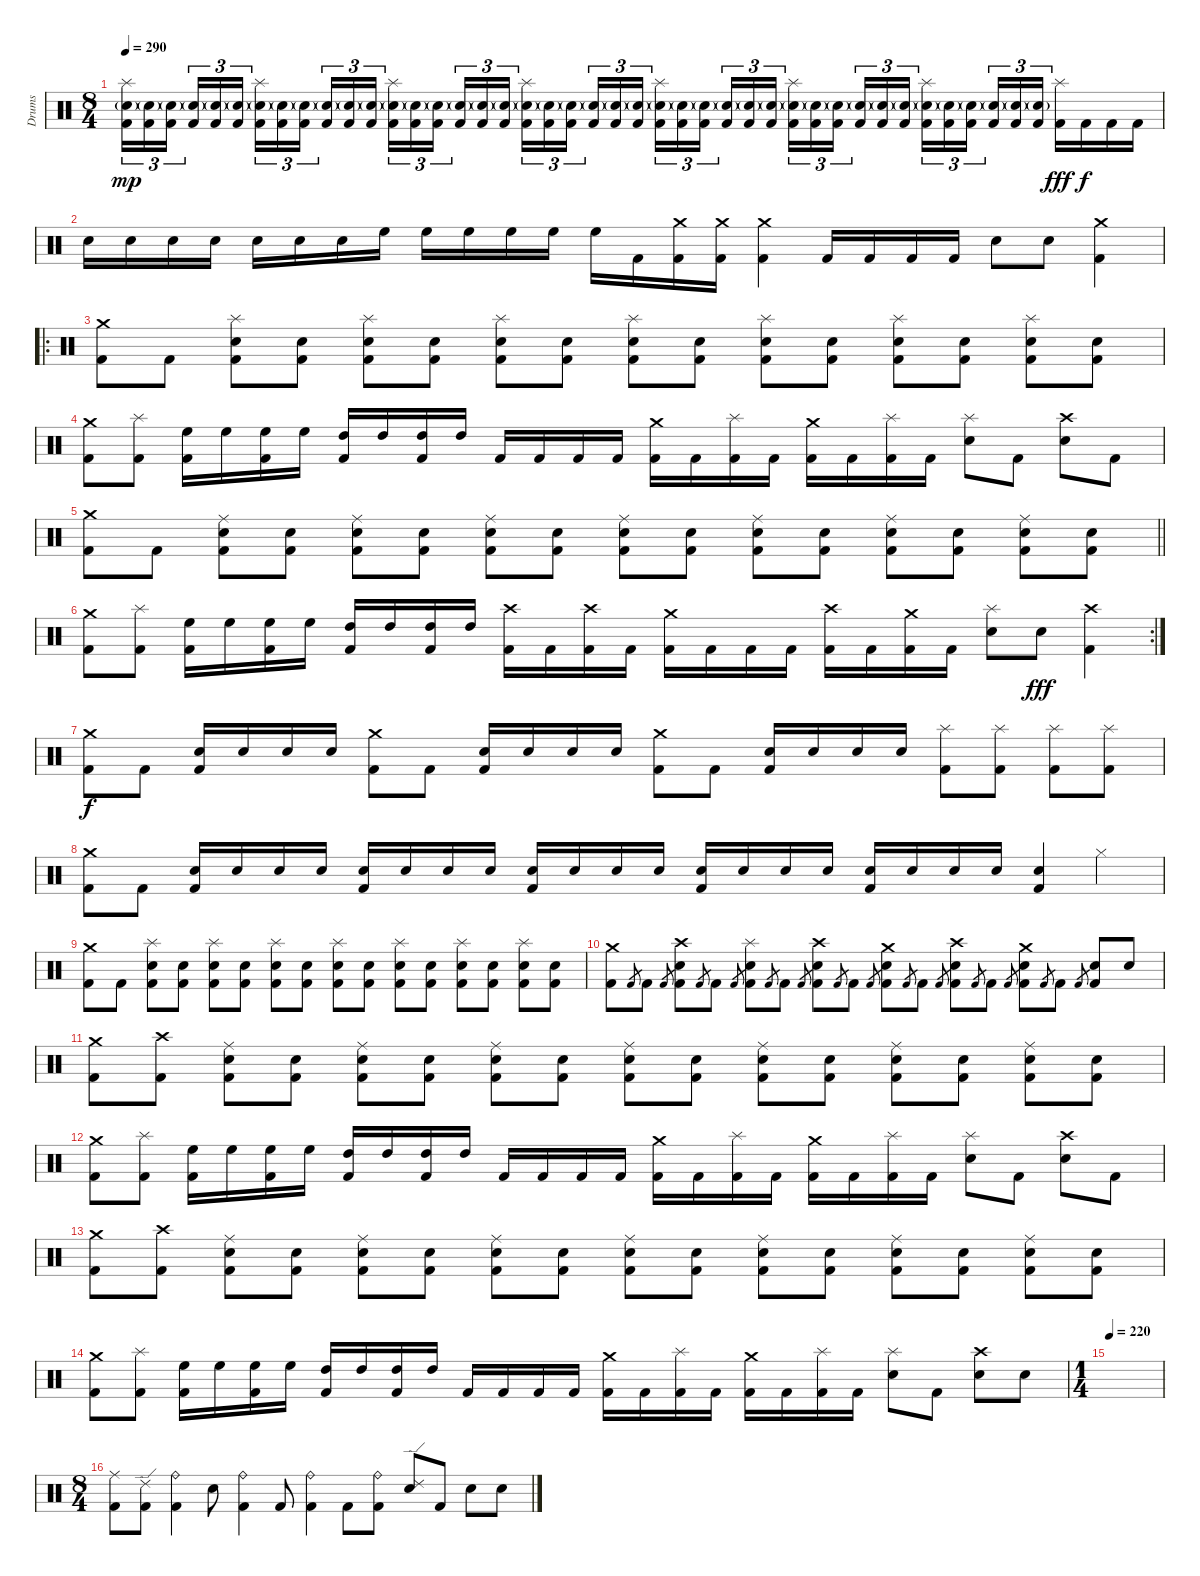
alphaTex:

\track ("Drums" "Drums") {instrument percussion}
\staff {score}
\articulation defaults
\ts (8 4)
\tempo 290
\clef neutral
\ks c
("Splash (hit)" "Snare (hit) 2"{g} "Kick (hit) 2").16{tu (3 2) dy mp} ("Snare (hit) 2"{g} "Kick (hit) 2").16{tu (3 2)} ("Snare (hit) 2"{g} "Kick (hit) 2").16{tu (3 2) beam splitsecondary} ("Snare (hit) 2"{g} "Kick (hit) 2").16{tu (3 2)} ("Snare (hit) 2"{g} "Kick (hit) 2").16{tu (3 2)} ("Snare (hit) 2"{g} "Kick (hit) 2").16{tu (3 2)} ("Splash (hit)" "Snare (hit) 2"{g} "Kick (hit) 2").16{tu (3 2)} ("Snare (hit) 2"{g} "Kick (hit) 2").16{tu (3 2)} ("Snare (hit) 2"{g} "Kick (hit) 2").16{tu (3 2) beam splitsecondary} ("Snare (hit) 2"{g} "Kick (hit) 2").16{tu (3 2)} ("Snare (hit) 2"{g} "Kick (hit) 2").16{tu (3 2)} ("Snare (hit) 2"{g} "Kick (hit) 2").16{tu (3 2)} ("Splash (hit)" "Snare (hit) 2"{g} "Kick (hit) 2").16{tu (3 2)} ("Snare (hit) 2"{g} "Kick (hit) 2").16{tu (3 2)} ("Snare (hit) 2"{g} "Kick (hit) 2").16{tu (3 2) beam splitsecondary} ("Snare (hit) 2"{g} "Kick (hit) 2").16{tu (3 2)} ("Snare (hit) 2"{g} "Kick (hit) 2").16{tu (3 2)} ("Snare (hit) 2"{g} "Kick (hit) 2").16{tu (3 2)} ("Splash (hit)" "Snare (hit) 2"{g} "Kick (hit) 2").16{tu (3 2)} ("Snare (hit) 2"{g} "Kick (hit) 2").16{tu (3 2)} ("Snare (hit) 2"{g} "Kick (hit) 2").16{tu (3 2) beam splitsecondary} ("Snare (hit) 2"{g} "Kick (hit) 2").16{tu (3 2)} ("Snare (hit) 2"{g} "Kick (hit) 2").16{tu (3 2)} ("Snare (hit) 2"{g} "Kick (hit) 2").16{tu (3 2)} ("Splash (hit)" "Snare (hit) 2"{g} "Kick (hit) 2").16{tu (3 2)} ("Snare (hit) 2"{g} "Kick (hit) 2").16{tu (3 2)} ("Snare (hit) 2"{g} "Kick (hit) 2").16{tu (3 2) beam splitsecondary} ("Snare (hit) 2"{g} "Kick (hit) 2").16{tu (3 2)} ("Snare (hit) 2"{g} "Kick (hit) 2").16{tu (3 2)} ("Snare (hit) 2"{g} "Kick (hit) 2").16{tu (3 2)} ("Splash (hit)" "Snare (hit) 2"{g} "Kick (hit) 2").16{tu (3 2)} ("Snare (hit) 2"{g} "Kick (hit) 2").16{tu (3 2)} ("Snare (hit) 2"{g} "Kick (hit) 2").16{tu (3 2) beam splitsecondary} ("Snare (hit) 2"{g} "Kick (hit) 2").16{tu (3 2)} ("Snare (hit) 2"{g} "Kick (hit) 2").16{tu (3 2)} ("Snare (hit) 2"{g} "Kick (hit) 2").16{tu (3 2)} ("Splash (hit)" "Snare (hit) 2"{g} "Kick (hit) 2").16{tu (3 2)} ("Snare (hit) 2"{g} "Kick (hit) 2").16{tu (3 2)} ("Snare (hit) 2"{g} "Kick (hit) 2").16{tu (3 2) beam splitsecondary} ("Snare (hit) 2"{g} "Kick (hit) 2").16{tu (3 2)} ("Snare (hit) 2"{g} "Kick (hit) 2").16{tu (3 2)} ("Snare (hit) 2"{g} "Kick (hit) 2").16{tu (3 2)} ("Splash (hit)" "Kick (hit) 2").16{dy fff} "Kick (hit) 2".16{dy f} "Kick (hit) 2".16 "Kick (hit) 2".16 |
"Snare (hit) 2".16 "Snare (hit) 2".16 "Snare (hit) 2".16 "Snare (hit) 2".16 "Snare (hit) 2".16 "Snare (hit) 2".16 "Snare (hit) 2".16 "High Floor Tom (hit)".16 "High Floor Tom (hit)".16 "High Floor Tom (hit)".16 "High Floor Tom (hit)".16 "High Floor Tom (hit)".16 "High Floor Tom (hit)".16 "Kick (hit) 2".16 ("Crash medium (hit)" "Kick (hit) 2").16 ("Crash medium (hit)" "Kick (hit) 2").16 ("Crash medium (hit)" "Kick (hit) 2").4 "Kick (hit) 2".16 "Kick (hit) 2".16 "Kick (hit) 2".16 "Kick (hit) 2".16 "Snare (hit) 2".8 "Snare (hit) 2".8 ("Crash medium (hit)" "Kick (hit) 2").4 |
\ro
("Crash medium (hit)" "Kick (hit) 2").8 "Kick (hit) 2".8 ("Splash (hit)" "Snare (hit) 2" "Kick (hit) 2").8 ("Snare (hit) 2" "Kick (hit) 2").8 ("Splash (hit)" "Snare (hit) 2" "Kick (hit) 2").8 ("Snare (hit) 2" "Kick (hit) 2").8 ("Splash (hit)" "Snare (hit) 2" "Kick (hit) 2").8 ("Snare (hit) 2" "Kick (hit) 2").8 ("Splash (hit)" "Snare (hit) 2" "Kick (hit) 2").8 ("Snare (hit) 2" "Kick (hit) 2").8 ("Splash (hit)" "Snare (hit) 2" "Kick (hit) 2").8 ("Snare (hit) 2" "Kick (hit) 2").8 ("Splash (hit)" "Snare (hit) 2" "Kick (hit) 2").8 ("Snare (hit) 2" "Kick (hit) 2").8 ("Splash (hit)" "Snare (hit) 2" "Kick (hit) 2").8 ("Snare (hit) 2" "Kick (hit) 2").8 |
("Crash medium (hit)" "Kick (hit) 2").8 ("Splash (hit)" "Kick (hit) 2").8 ("High Floor Tom (hit)" "Kick (hit) 2").16 "High Floor Tom (hit)".16 ("High Floor Tom (hit)" "Kick (hit) 2").16 "High Floor Tom (hit)".16 ("High Tom (hit)" "Kick (hit) 2").16 "High Tom (hit)".16 ("High Tom (hit)" "Kick (hit) 2").16 "High Tom (hit)".16 "Kick (hit) 2".16 "Kick (hit) 2".16 "Kick (hit) 2".16 "Kick (hit) 2".16 ("Crash medium (hit)" "Kick (hit) 2").16 "Kick (hit) 2".16 ("Splash (hit)" "Kick (hit) 2").16 "Kick (hit) 2".16 ("Crash medium (hit)" "Kick (hit) 2").16 "Kick (hit) 2".16 ("Splash (hit)" "Kick (hit) 2").16 "Kick (hit) 2".16 ("Splash (hit)" "Snare (hit) 2").8 "Kick (hit) 2".8 ("Crash high (hit)" "Snare (hit) 2").8 "Kick (hit) 2".8 |
\barLineRight lightlight
("Crash medium (hit)" "Kick (hit) 2").8 "Kick (hit) 2".8 ("Ride (middle)" "Snare (hit) 2" "Kick (hit) 2").8 ("Snare (hit) 2" "Kick (hit) 2").8 ("Ride (middle)" "Snare (hit) 2" "Kick (hit) 2").8 ("Snare (hit) 2" "Kick (hit) 2").8 ("Ride (middle)" "Snare (hit) 2" "Kick (hit) 2").8 ("Snare (hit) 2" "Kick (hit) 2").8 ("Ride (middle)" "Snare (hit) 2" "Kick (hit) 2").8 ("Snare (hit) 2" "Kick (hit) 2").8 ("Ride (middle)" "Snare (hit) 2" "Kick (hit) 2").8 ("Snare (hit) 2" "Kick (hit) 2").8 ("Ride (middle)" "Snare (hit) 2" "Kick (hit) 2").8 ("Snare (hit) 2" "Kick (hit) 2").8 ("Ride (middle)" "Snare (hit) 2" "Kick (hit) 2").8 ("Snare (hit) 2" "Kick (hit) 2").8 |
\rc 2
("Crash medium (hit)" "Kick (hit) 2").8 ("Splash (hit)" "Kick (hit) 2").8 ("High Floor Tom (hit)" "Kick (hit) 2").16 "High Floor Tom (hit)".16 ("High Floor Tom (hit)" "Kick (hit) 2").16 "High Floor Tom (hit)".16 ("High Tom (hit)" "Kick (hit) 2").16 "High Tom (hit)".16 ("High Tom (hit)" "Kick (hit) 2").16 "High Tom (hit)".16 ("Crash high (hit)" "Kick (hit) 2").16 "Kick (hit) 2".16 ("Crash high (hit)" "Kick (hit) 2").16 "Kick (hit) 2".16 ("Crash medium (hit)" "Kick (hit) 2").16 "Kick (hit) 2".16 "Kick (hit) 2".16 "Kick (hit) 2".16 ("Crash high (hit)" "Kick (hit) 2").16 "Kick (hit) 2".16 ("Crash medium (hit)" "Kick (hit) 2").16 "Kick (hit) 2".16 ("Splash (hit)" "Snare (hit) 2").8 "Snare (hit) 2".8{dy fff} ("Crash high (hit)" "Kick (hit) 2").4 |
("Crash medium (hit)" "Kick (hit) 2").8{dy f} "Kick (hit) 2".8 ("Snare (hit) 2" "Kick (hit) 2").16 "Snare (hit) 2".16 "Snare (hit) 2".16 "Snare (hit) 2".16 ("Crash medium (hit)" "Kick (hit) 2").8 "Kick (hit) 2".8 ("Snare (hit) 2" "Kick (hit) 2").16 "Snare (hit) 2".16 "Snare (hit) 2".16 "Snare (hit) 2".16 ("Crash medium (hit)" "Kick (hit) 2").8 "Kick (hit) 2".8 ("Snare (hit) 2" "Kick (hit) 2").16 "Snare (hit) 2".16 "Snare (hit) 2".16 "Snare (hit) 2".16 ("Splash (hit)" "Kick (hit) 2").8 ("Splash (hit)" "Kick (hit) 2").8 ("Splash (hit)" "Kick (hit) 2").8 ("Splash (hit)" "Kick (hit) 2").8 |
("Crash medium (hit)" "Kick (hit) 2").8 "Kick (hit) 2".8 ("Snare (hit) 2" "Kick (hit) 2").16 "Snare (hit) 2".16 "Snare (hit) 2".16 "Snare (hit) 2".16 ("Snare (hit) 2" "Kick (hit) 2").16 "Snare (hit) 2".16 "Snare (hit) 2".16 "Snare (hit) 2".16 ("Snare (hit) 2" "Kick (hit) 2").16 "Snare (hit) 2".16 "Snare (hit) 2".16 "Snare (hit) 2".16 ("Snare (hit) 2" "Kick (hit) 2").16 "Snare (hit) 2".16 "Snare (hit) 2".16 "Snare (hit) 2".16 ("Snare (hit) 2" "Kick (hit) 2").16 "Snare (hit) 2".16 "Snare (hit) 2".16 "Snare (hit) 2".16 ("Snare (hit) 2" "Kick (hit) 2").4 "Hi-Hat (closed)".4 |
("Crash medium (hit)" "Kick (hit) 2").8 "Kick (hit) 2".8 ("Splash (hit)" "Snare (hit) 2" "Kick (hit) 2").8 ("Snare (hit) 2" "Kick (hit) 2").8 ("Splash (hit)" "Snare (hit) 2" "Kick (hit) 2").8 ("Snare (hit) 2" "Kick (hit) 2").8 ("Splash (hit)" "Snare (hit) 2" "Kick (hit) 2").8 ("Snare (hit) 2" "Kick (hit) 2").8 ("Splash (hit)" "Snare (hit) 2" "Kick (hit) 2").8 ("Snare (hit) 2" "Kick (hit) 2").8 ("Splash (hit)" "Snare (hit) 2" "Kick (hit) 2").8 ("Snare (hit) 2" "Kick (hit) 2").8 ("Splash (hit)" "Snare (hit) 2" "Kick (hit) 2").8 ("Snare (hit) 2" "Kick (hit) 2").8 ("Splash (hit)" "Snare (hit) 2" "Kick (hit) 2").8 ("Snare (hit) 2" "Kick (hit) 2").8 |
("Crash medium (hit)" "Kick (hit) 2").8 "Kick (hit) 2".8{gr} "Kick (hit) 2".8 "Kick (hit) 2".8{gr} ("Crash high (hit)" "Snare (hit) 2" "Kick (hit) 2").8 "Kick (hit) 2".8{gr} "Kick (hit) 2".8 "Kick (hit) 2".8{gr} ("Splash (hit)" "Snare (hit) 2" "Kick (hit) 2").8 "Kick (hit) 2".8{gr} "Kick (hit) 2".8 "Kick (hit) 2".8{gr} ("Crash high (hit)" "Snare (hit) 2" "Kick (hit) 2").8 "Kick (hit) 2".8{gr} "Kick (hit) 2".8 "Kick (hit) 2".8{gr} ("Crash medium (hit)" "Snare (hit) 2" "Kick (hit) 2").8 "Kick (hit) 2".8{gr} "Kick (hit) 2".8 "Kick (hit) 2".8{gr} ("Crash high (hit)" "Snare (hit) 2" "Kick (hit) 2").8 "Kick (hit) 2".8{gr} "Kick (hit) 2".8 "Kick (hit) 2".8{gr} ("Crash medium (hit)" "Snare (hit) 2" "Kick (hit) 2").8 "Kick (hit) 2".8{gr} "Kick (hit) 2".8 "Kick (hit) 2".8{gr} ("Snare (hit) 2" "Kick (hit) 2").8 "Snare (hit) 2".8 |
("Crash medium (hit)" "Kick (hit) 2").8 ("Crash high (hit)" "Kick (hit) 2").8 ("Ride (middle)" "Snare (hit) 2" "Kick (hit) 2").8 ("Snare (hit) 2" "Kick (hit) 2").8 ("Ride (middle)" "Snare (hit) 2" "Kick (hit) 2").8 ("Snare (hit) 2" "Kick (hit) 2").8 ("Ride (middle)" "Snare (hit) 2" "Kick (hit) 2").8 ("Snare (hit) 2" "Kick (hit) 2").8 ("Ride (middle)" "Snare (hit) 2" "Kick (hit) 2").8 ("Snare (hit) 2" "Kick (hit) 2").8 ("Ride (middle)" "Snare (hit) 2" "Kick (hit) 2").8 ("Snare (hit) 2" "Kick (hit) 2").8 ("Ride (middle)" "Snare (hit) 2" "Kick (hit) 2").8 ("Snare (hit) 2" "Kick (hit) 2").8 ("Ride (middle)" "Snare (hit) 2" "Kick (hit) 2").8 ("Snare (hit) 2" "Kick (hit) 2").8 |
("Crash medium (hit)" "Kick (hit) 2").8 ("Splash (hit)" "Kick (hit) 2").8 ("High Floor Tom (hit)" "Kick (hit) 2").16 "High Floor Tom (hit)".16 ("High Floor Tom (hit)" "Kick (hit) 2").16 "High Floor Tom (hit)".16 ("High Tom (hit)" "Kick (hit) 2").16 "High Tom (hit)".16 ("High Tom (hit)" "Kick (hit) 2").16 "High Tom (hit)".16 "Kick (hit) 2".16 "Kick (hit) 2".16 "Kick (hit) 2".16 "Kick (hit) 2".16 ("Crash medium (hit)" "Kick (hit) 2").16 "Kick (hit) 2".16 ("Splash (hit)" "Kick (hit) 2").16 "Kick (hit) 2".16 ("Crash medium (hit)" "Kick (hit) 2").16 "Kick (hit) 2".16 ("Splash (hit)" "Kick (hit) 2").16 "Kick (hit) 2".16 ("Splash (hit)" "Snare (hit) 2").8 "Kick (hit) 2".8 ("Crash high (hit)" "Snare (hit) 2").8 "Kick (hit) 2".8 |
("Crash medium (hit)" "Kick (hit) 2").8 ("Crash high (hit)" "Kick (hit) 2").8 ("Ride (middle)" "Snare (hit) 2" "Kick (hit) 2").8 ("Snare (hit) 2" "Kick (hit) 2").8 ("Ride (middle)" "Snare (hit) 2" "Kick (hit) 2").8 ("Snare (hit) 2" "Kick (hit) 2").8 ("Ride (middle)" "Snare (hit) 2" "Kick (hit) 2").8 ("Snare (hit) 2" "Kick (hit) 2").8 ("Ride (middle)" "Snare (hit) 2" "Kick (hit) 2").8 ("Snare (hit) 2" "Kick (hit) 2").8 ("Ride (middle)" "Snare (hit) 2" "Kick (hit) 2").8 ("Snare (hit) 2" "Kick (hit) 2").8 ("Ride (middle)" "Snare (hit) 2" "Kick (hit) 2").8 ("Snare (hit) 2" "Kick (hit) 2").8 ("Ride (middle)" "Snare (hit) 2" "Kick (hit) 2").8 ("Snare (hit) 2" "Kick (hit) 2").8 |
("Crash medium (hit)" "Kick (hit) 2").8 ("Splash (hit)" "Kick (hit) 2").8 ("High Floor Tom (hit)" "Kick (hit) 2").16 "High Floor Tom (hit)".16 ("High Floor Tom (hit)" "Kick (hit) 2").16 "High Floor Tom (hit)".16 ("High Tom (hit)" "Kick (hit) 2").16 "High Tom (hit)".16 ("High Tom (hit)" "Kick (hit) 2").16 "High Tom (hit)".16 "Kick (hit) 2".16 "Kick (hit) 2".16 "Kick (hit) 2".16 "Kick (hit) 2".16 ("Crash medium (hit)" "Kick (hit) 2").16 "Kick (hit) 2".16 ("Splash (hit)" "Kick (hit) 2").16 "Kick (hit) 2".16 ("Crash medium (hit)" "Kick (hit) 2").16 "Kick (hit) 2".16 ("Splash (hit)" "Kick (hit) 2").16 "Kick (hit) 2".16 ("Splash (hit)" "Snare (hit) 2").8 "Kick (hit) 2".8 ("Crash high (hit)" "Snare (hit) 2").8 "Snare (hit) 2".8 |
\ts (1 4)
\tempo 220
|
\ts (8 4)
("Ride (middle)" "Kick (hit) 2").8 ("Ride (edge) 2" "Kick (hit) 2").8 ("Ride (bell)" "Kick (hit) 2").4 "Snare (hit) 2".8 ("Ride (bell)" "Kick (hit) 2").4 "Kick (hit) 2".8 ("Ride (bell)" "Kick (hit) 2").4 "Kick (hit) 2".8 ("Ride (bell)" "Kick (hit) 2").8 ("Ride (edge) 2" "Snare (hit) 2").8 "Kick (hit) 2".8 "Snare (hit) 2".8 "Snare (hit) 2".8
